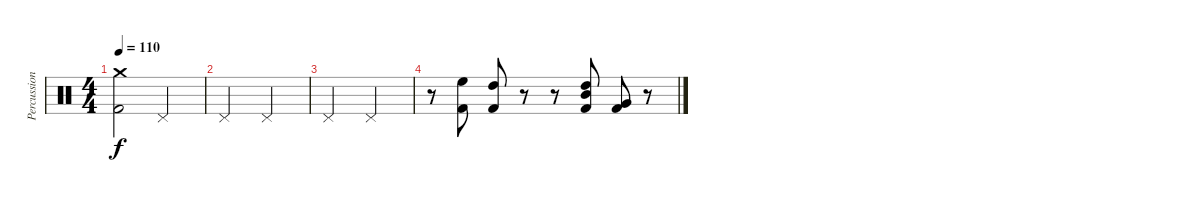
\track ("Percussion" "Percussion") {instrument percussion}
\staff {score}
\articulation defaults
\ts (4 4)
\tempo 110
\clef neutral
\ks c
("Kick (hit) 2" "Crash medium (hit)").2{dy f} "Pedal Hi-Hat (hit)".2 |
"Pedal Hi-Hat (hit)".2 "Pedal Hi-Hat (hit)".2 |
"Pedal Hi-Hat (hit)".2 "Pedal Hi-Hat (hit)".2 |
r.8 ("High Floor Tom (hit)" "Kick (hit) 2").8 ("High Tom (hit)" "Kick (hit) 2").8 r.8 r.8 ("High Tom (hit)" "Mid Tom (hit)" "Kick (hit) 2").8{bd 60} ("Very Low Tom (hit)" "Kick (hit) 2").8{bd 60} r.8
